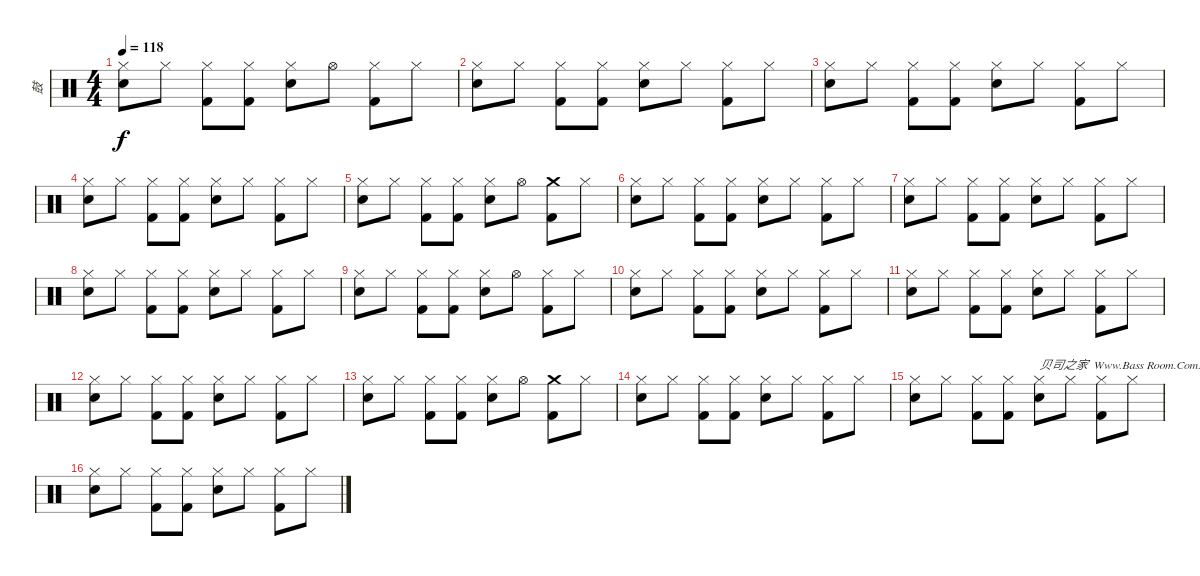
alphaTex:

\track ("鼓" "鼓") {instrument percussion}
\staff {score}
\articulation defaults
\ts (4 4)
\tempo 118
\clef neutral
\ks c
("Hi-Hat (closed)" "Electric Snare (hit)").8{dy f} "Hi-Hat (closed)".8 ("Hi-Hat (closed)" "Kick (hit) 2").8 ("Hi-Hat (closed)" "Kick (hit) 2").8 ("Hi-Hat (closed)" "Electric Snare (hit)").8 "Hi-Hat (open)".8 ("Hi-Hat (closed)" "Kick (hit) 2").8 "Hi-Hat (closed)".8 |
("Hi-Hat (closed)" "Electric Snare (hit)").8 "Hi-Hat (closed)".8 ("Hi-Hat (closed)" "Kick (hit) 2").8 ("Hi-Hat (closed)" "Kick (hit) 2").8 ("Hi-Hat (closed)" "Electric Snare (hit)").8 "Hi-Hat (closed)".8 ("Hi-Hat (closed)" "Kick (hit) 2").8 "Hi-Hat (closed)".8 |
("Hi-Hat (closed)" "Electric Snare (hit)").8 "Hi-Hat (closed)".8 ("Hi-Hat (closed)" "Kick (hit) 2").8 ("Hi-Hat (closed)" "Kick (hit) 2").8 ("Hi-Hat (closed)" "Electric Snare (hit)").8 "Hi-Hat (closed)".8 ("Hi-Hat (closed)" "Kick (hit) 2").8 "Hi-Hat (closed)".8 |
("Hi-Hat (closed)" "Electric Snare (hit)").8 "Hi-Hat (closed)".8 ("Hi-Hat (closed)" "Kick (hit) 2").8 ("Hi-Hat (closed)" "Kick (hit) 2").8 ("Hi-Hat (closed)" "Electric Snare (hit)").8 "Hi-Hat (closed)".8 ("Hi-Hat (closed)" "Kick (hit) 2").8 "Hi-Hat (closed)".8 |
("Hi-Hat (closed)" "Electric Snare (hit)").8 "Hi-Hat (closed)".8 ("Hi-Hat (closed)" "Kick (hit) 2").8 ("Hi-Hat (closed)" "Kick (hit) 2").8 ("Hi-Hat (closed)" "Electric Snare (hit)").8 "Hi-Hat (open)".8 ("Crash medium (hit)" "Kick (hit) 2").8 "Hi-Hat (closed)".8 |
("Hi-Hat (closed)" "Electric Snare (hit)").8 "Hi-Hat (closed)".8 ("Hi-Hat (closed)" "Kick (hit) 2").8 ("Hi-Hat (closed)" "Kick (hit) 2").8 ("Hi-Hat (closed)" "Electric Snare (hit)").8 "Hi-Hat (closed)".8 ("Hi-Hat (closed)" "Kick (hit) 2").8 "Hi-Hat (closed)".8 |
("Hi-Hat (closed)" "Electric Snare (hit)").8 "Hi-Hat (closed)".8 ("Hi-Hat (closed)" "Kick (hit) 2").8 ("Hi-Hat (closed)" "Kick (hit) 2").8 ("Hi-Hat (closed)" "Electric Snare (hit)").8 "Hi-Hat (closed)".8 ("Hi-Hat (closed)" "Kick (hit) 2").8 "Hi-Hat (closed)".8 |
("Hi-Hat (closed)" "Electric Snare (hit)").8 "Hi-Hat (closed)".8 ("Hi-Hat (closed)" "Kick (hit) 2").8 ("Hi-Hat (closed)" "Kick (hit) 2").8 ("Hi-Hat (closed)" "Electric Snare (hit)").8 "Hi-Hat (closed)".8 ("Hi-Hat (closed)" "Kick (hit) 2").8 "Hi-Hat (closed)".8 |
("Hi-Hat (closed)" "Electric Snare (hit)").8 "Hi-Hat (closed)".8 ("Hi-Hat (closed)" "Kick (hit) 2").8 ("Hi-Hat (closed)" "Kick (hit) 2").8 ("Hi-Hat (closed)" "Electric Snare (hit)").8 "Hi-Hat (open)".8 ("Hi-Hat (closed)" "Kick (hit) 2").8 "Hi-Hat (closed)".8 |
("Hi-Hat (closed)" "Electric Snare (hit)").8 "Hi-Hat (closed)".8 ("Hi-Hat (closed)" "Kick (hit) 2").8 ("Hi-Hat (closed)" "Kick (hit) 2").8 ("Hi-Hat (closed)" "Electric Snare (hit)").8 "Hi-Hat (closed)".8 ("Hi-Hat (closed)" "Kick (hit) 2").8 "Hi-Hat (closed)".8 |
("Hi-Hat (closed)" "Electric Snare (hit)").8 "Hi-Hat (closed)".8 ("Hi-Hat (closed)" "Kick (hit) 2").8 ("Hi-Hat (closed)" "Kick (hit) 2").8 ("Hi-Hat (closed)" "Electric Snare (hit)").8 "Hi-Hat (closed)".8 ("Hi-Hat (closed)" "Kick (hit) 2").8 "Hi-Hat (closed)".8 |
("Hi-Hat (closed)" "Electric Snare (hit)").8 "Hi-Hat (closed)".8 ("Hi-Hat (closed)" "Kick (hit) 2").8 ("Hi-Hat (closed)" "Kick (hit) 2").8 ("Hi-Hat (closed)" "Electric Snare (hit)").8 "Hi-Hat (closed)".8 ("Hi-Hat (closed)" "Kick (hit) 2").8 "Hi-Hat (closed)".8 |
("Hi-Hat (closed)" "Electric Snare (hit)").8 "Hi-Hat (closed)".8 ("Hi-Hat (closed)" "Kick (hit) 2").8 ("Hi-Hat (closed)" "Kick (hit) 2").8 ("Hi-Hat (closed)" "Electric Snare (hit)").8 "Hi-Hat (open)".8 ("Crash medium (hit)" "Kick (hit) 2").8 "Hi-Hat (closed)".8 |
("Hi-Hat (closed)" "Electric Snare (hit)").8 "Hi-Hat (closed)".8 ("Hi-Hat (closed)" "Kick (hit) 2").8 ("Hi-Hat (closed)" "Kick (hit) 2").8 ("Hi-Hat (closed)" "Electric Snare (hit)").8 "Hi-Hat (closed)".8 ("Hi-Hat (closed)" "Kick (hit) 2").8 "Hi-Hat (closed)".8 |
("Hi-Hat (closed)" "Electric Snare (hit)").8 "Hi-Hat (closed)".8 ("Hi-Hat (closed)" "Kick (hit) 2").8 ("Hi-Hat (closed)" "Kick (hit) 2").8 ("Hi-Hat (closed)" "Electric Snare (hit)").8{txt "贝司之家  Www.Bass Room.Com.Cn "} "Hi-Hat (closed)".8 ("Hi-Hat (closed)" "Kick (hit) 2").8 "Hi-Hat (closed)".8 |
("Hi-Hat (closed)" "Electric Snare (hit)").8 "Hi-Hat (closed)".8 ("Hi-Hat (closed)" "Kick (hit) 2").8 ("Hi-Hat (closed)" "Kick (hit) 2").8 ("Hi-Hat (closed)" "Electric Snare (hit)").8 "Hi-Hat (closed)".8 ("Hi-Hat (closed)" "Kick (hit) 2").8 "Hi-Hat (closed)".8
